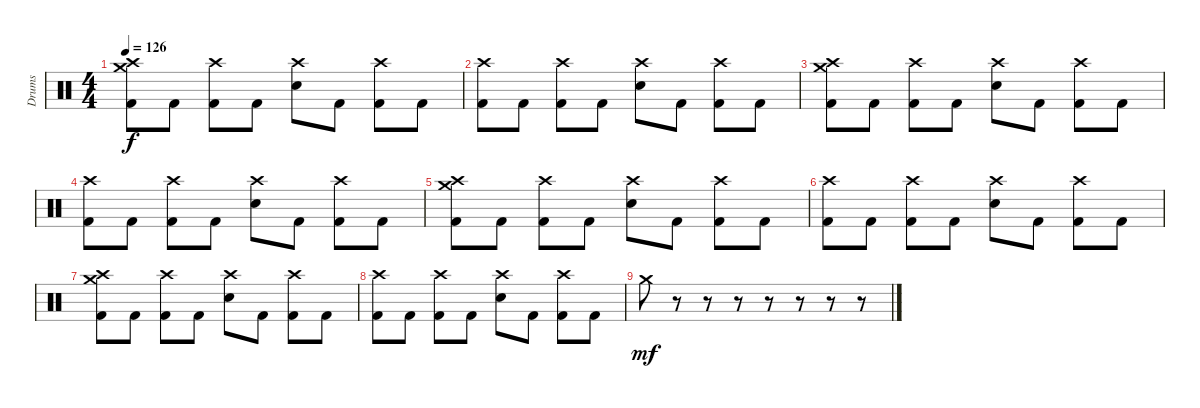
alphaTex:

\track ("Drums" "Drums") {instrument percussion}
\staff {score}
\articulation defaults
\ts (4 4)
\tempo 126
\clef neutral
\ks c
("Crash medium (hit)" "Crash high (hit)" "Kick (hit) 2").8{dy f} "Kick (hit) 2".8 ("Crash high (hit)" "Kick (hit) 2").8 "Kick (hit) 2".8 ("Crash high (hit)" "Electric Snare (hit)").8 "Kick (hit) 2".8 ("Crash high (hit)" "Kick (hit) 2").8 "Kick (hit) 2".8 |
("Crash high (hit)" "Kick (hit) 2").8 "Kick (hit) 2".8 ("Crash high (hit)" "Kick (hit) 2").8 "Kick (hit) 2".8 ("Crash high (hit)" "Electric Snare (hit)").8 "Kick (hit) 2".8 ("Crash high (hit)" "Kick (hit) 2").8 "Kick (hit) 2".8 |
("Crash medium (hit)" "Crash high (hit)" "Kick (hit) 2").8 "Kick (hit) 2".8 ("Crash high (hit)" "Kick (hit) 2").8 "Kick (hit) 2".8 ("Crash high (hit)" "Electric Snare (hit)").8 "Kick (hit) 2".8 ("Crash high (hit)" "Kick (hit) 2").8 "Kick (hit) 2".8 |
("Crash high (hit)" "Kick (hit) 2").8 "Kick (hit) 2".8 ("Crash high (hit)" "Kick (hit) 2").8 "Kick (hit) 2".8 ("Crash high (hit)" "Electric Snare (hit)").8 "Kick (hit) 2".8 ("Crash high (hit)" "Kick (hit) 2").8 "Kick (hit) 2".8 |
("Crash medium (hit)" "Crash high (hit)" "Kick (hit) 2").8 "Kick (hit) 2".8 ("Crash high (hit)" "Kick (hit) 2").8 "Kick (hit) 2".8 ("Crash high (hit)" "Electric Snare (hit)").8 "Kick (hit) 2".8 ("Crash high (hit)" "Kick (hit) 2").8 "Kick (hit) 2".8 |
("Crash high (hit)" "Kick (hit) 2").8 "Kick (hit) 2".8 ("Crash high (hit)" "Kick (hit) 2").8 "Kick (hit) 2".8 ("Crash high (hit)" "Electric Snare (hit)").8 "Kick (hit) 2".8 ("Crash high (hit)" "Kick (hit) 2").8 "Kick (hit) 2".8 |
("Crash medium (hit)" "Crash high (hit)" "Kick (hit) 2").8 "Kick (hit) 2".8 ("Crash high (hit)" "Kick (hit) 2").8 "Kick (hit) 2".8 ("Crash high (hit)" "Electric Snare (hit)").8 "Kick (hit) 2".8 ("Crash high (hit)" "Kick (hit) 2").8 "Kick (hit) 2".8 |
("Crash high (hit)" "Kick (hit) 2").8 "Kick (hit) 2".8 ("Crash high (hit)" "Kick (hit) 2").8 "Kick (hit) 2".8 ("Crash high (hit)" "Electric Snare (hit)").8 "Kick (hit) 2".8 ("Crash high (hit)" "Kick (hit) 2").8 "Kick (hit) 2".8 |
"Crash medium (hit)".8{dy mf} r.8 r.8 r.8 r.8 r.8 r.8 r.8
